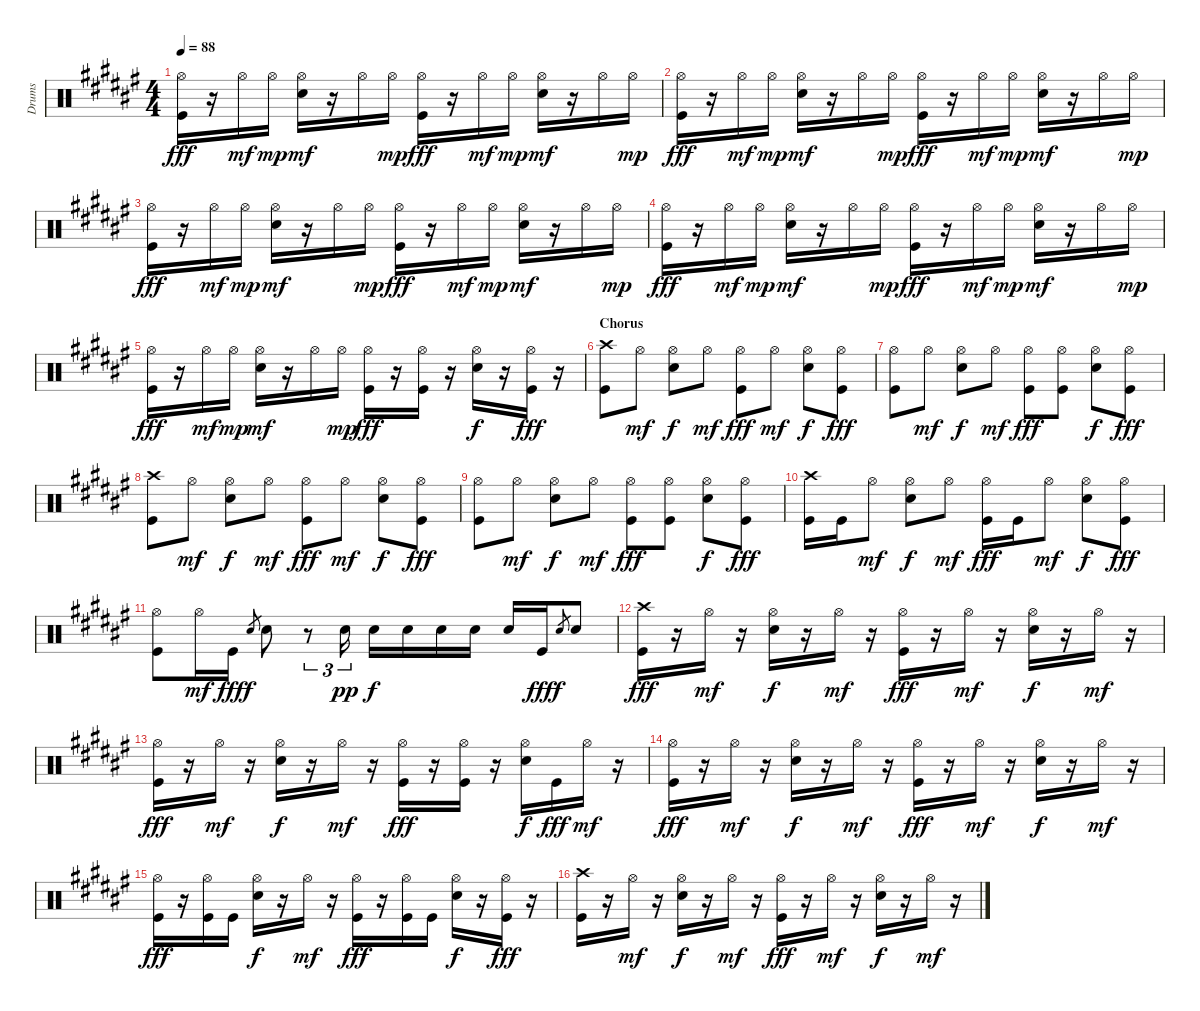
\track ("Drums" "Drums") {instrument percussion}
\staff {score}
\articulation defaults
\ts (4 4)
\tempo 88
\clef neutral
\ks f#
("Hi-Hat (open)" "Kick (hit)").16{dy fff} r.16 "Hi-Hat (open)".16{dy mf} "Hi-Hat (open)".16{dy mp} ("Hi-Hat (open)" "Snare (hit) 2").16{dy mf} r.16 "Hi-Hat (open)".16 "Hi-Hat (open)".16{dy mp} ("Hi-Hat (open)" "Kick (hit)").16{dy fff} r.16 "Hi-Hat (open)".16{dy mf} "Hi-Hat (open)".16{dy mp} ("Hi-Hat (open)" "Snare (hit) 2").16{dy mf} r.16 "Hi-Hat (open)".16 "Hi-Hat (open)".16{dy mp} |
("Hi-Hat (open)" "Kick (hit)").16{dy fff} r.16 "Hi-Hat (open)".16{dy mf} "Hi-Hat (open)".16{dy mp} ("Hi-Hat (open)" "Snare (hit) 2").16{dy mf} r.16 "Hi-Hat (open)".16 "Hi-Hat (open)".16{dy mp} ("Hi-Hat (open)" "Kick (hit)").16{dy fff} r.16 "Hi-Hat (open)".16{dy mf} "Hi-Hat (open)".16{dy mp} ("Hi-Hat (open)" "Snare (hit) 2").16{dy mf} r.16 "Hi-Hat (open)".16 "Hi-Hat (open)".16{dy mp} |
("Hi-Hat (open)" "Kick (hit)").16{dy fff} r.16 "Hi-Hat (open)".16{dy mf} "Hi-Hat (open)".16{dy mp} ("Hi-Hat (open)" "Snare (hit) 2").16{dy mf} r.16 "Hi-Hat (open)".16 "Hi-Hat (open)".16{dy mp} ("Hi-Hat (open)" "Kick (hit)").16{dy fff} r.16 "Hi-Hat (open)".16{dy mf} "Hi-Hat (open)".16{dy mp} ("Hi-Hat (open)" "Snare (hit) 2").16{dy mf} r.16 "Hi-Hat (open)".16 "Hi-Hat (open)".16{dy mp} |
("Hi-Hat (open)" "Kick (hit)").16{dy fff} r.16 "Hi-Hat (open)".16{dy mf} "Hi-Hat (open)".16{dy mp} ("Hi-Hat (open)" "Snare (hit) 2").16{dy mf} r.16 "Hi-Hat (open)".16 "Hi-Hat (open)".16{dy mp} ("Hi-Hat (open)" "Kick (hit)").16{dy fff} r.16 "Hi-Hat (open)".16{dy mf} "Hi-Hat (open)".16{dy mp} ("Hi-Hat (open)" "Snare (hit) 2").16{dy mf} r.16 "Hi-Hat (open)".16 "Hi-Hat (open)".16{dy mp} |
("Hi-Hat (open)" "Kick (hit)").16{dy fff} r.16 "Hi-Hat (open)".16{dy mf} "Hi-Hat (open)".16{dy mp} ("Hi-Hat (open)" "Snare (hit) 2").16{dy mf} r.16 "Hi-Hat (open)".16 "Hi-Hat (open)".16{dy mp} ("Hi-Hat (open)" "Kick (hit)").16{dy fff} r.16 ("Hi-Hat (open)" "Kick (hit)").16 r.16 ("Hi-Hat (open)" "Snare (hit) 2").16{dy f} r.16 ("Hi-Hat (open)" "Kick (hit)").16{dy fff} r.16 |
\section ("" "Chorus")
("Crash high (hit)" "Kick (hit)").8 "Hi-Hat (open)".8{dy mf} ("Hi-Hat (open)" "Snare (hit) 2").8{dy f} "Hi-Hat (open)".8{dy mf} ("Hi-Hat (open)" "Kick (hit)").8{dy fff} "Hi-Hat (open)".8{dy mf} ("Hi-Hat (open)" "Snare (hit) 2").8{dy f} ("Hi-Hat (open)" "Kick (hit)").8{dy fff} |
("Hi-Hat (open)" "Kick (hit)").8 "Hi-Hat (open)".8{dy mf} ("Hi-Hat (open)" "Snare (hit) 2").8{dy f} "Hi-Hat (open)".8{dy mf} ("Hi-Hat (open)" "Kick (hit)").8{dy fff} ("Hi-Hat (open)" "Kick (hit)").8 ("Hi-Hat (open)" "Snare (hit) 2").8{dy f} ("Hi-Hat (open)" "Kick (hit)").8{dy fff} |
("Crash high (hit)" "Kick (hit)").8 "Hi-Hat (open)".8{dy mf} ("Hi-Hat (open)" "Snare (hit) 2").8{dy f} "Hi-Hat (open)".8{dy mf} ("Hi-Hat (open)" "Kick (hit)").8{dy fff} "Hi-Hat (open)".8{dy mf} ("Hi-Hat (open)" "Snare (hit) 2").8{dy f} ("Hi-Hat (open)" "Kick (hit)").8{dy fff} |
("Hi-Hat (open)" "Kick (hit)").8 "Hi-Hat (open)".8{dy mf} ("Hi-Hat (open)" "Snare (hit) 2").8{dy f} "Hi-Hat (open)".8{dy mf} ("Hi-Hat (open)" "Kick (hit)").8{dy fff} ("Hi-Hat (open)" "Kick (hit)").8 ("Hi-Hat (open)" "Snare (hit) 2").8{dy f} ("Hi-Hat (open)" "Kick (hit)").8{dy fff} |
("Crash high (hit)" "Kick (hit)").16 "Kick (hit)".16 "Hi-Hat (open)".8{dy mf} ("Hi-Hat (open)" "Snare (hit) 2").8{dy f} "Hi-Hat (open)".8{dy mf} ("Hi-Hat (open)" "Kick (hit)").16{dy fff} "Kick (hit)".16 "Hi-Hat (open)".8{dy mf} ("Hi-Hat (open)" "Snare (hit) 2").8{dy f} ("Hi-Hat (open)" "Kick (hit)").8{dy fff} |
("Hi-Hat (open)" "Kick (hit)").8 "Hi-Hat (open)".16{dy mf} "Kick (hit)".16{dy fff} "Snare (hit) 2".8{gr dy f} "Snare (hit) 2".8 r.8{tu (3 2)} "Snare (hit) 2".16{tu (3 2) dy pp} "Snare (hit) 2".16{dy f} "Snare (hit) 2".16 "Snare (hit) 2".16 "Snare (hit) 2".16 "Snare (hit) 2".16 "Kick (hit)".16{dy fff} "Snare (hit) 2".8{gr dy f} "Snare (hit) 2".8 |
("Crash high (hit)" "Kick (hit)").16{dy fff} r.16 "Hi-Hat (open)".16{dy mf} r.16 ("Hi-Hat (open)" "Snare (hit) 2").16{dy f} r.16 "Hi-Hat (open)".16{dy mf} r.16 ("Hi-Hat (open)" "Kick (hit)").16{dy fff} r.16 "Hi-Hat (open)".16{dy mf} r.16 ("Hi-Hat (open)" "Snare (hit) 2").16{dy f} r.16 "Hi-Hat (open)".16{dy mf} r.16 |
("Hi-Hat (open)" "Kick (hit)").16{dy fff} r.16 "Hi-Hat (open)".16{dy mf} r.16 ("Hi-Hat (open)" "Snare (hit) 2").16{dy f} r.16 "Hi-Hat (open)".16{dy mf} r.16 ("Hi-Hat (open)" "Kick (hit)").16{dy fff} r.16 ("Hi-Hat (open)" "Kick (hit)").16 r.16 ("Hi-Hat (open)" "Snare (hit) 2").16{dy f} "Kick (hit)".16{dy fff} "Hi-Hat (open)".16{dy mf} r.16 |
("Hi-Hat (open)" "Kick (hit)").16{dy fff} r.16 "Hi-Hat (open)".16{dy mf} r.16 ("Hi-Hat (open)" "Snare (hit) 2").16{dy f} r.16 "Hi-Hat (open)".16{dy mf} r.16 ("Hi-Hat (open)" "Kick (hit)").16{dy fff} r.16 "Hi-Hat (open)".16{dy mf} r.16 ("Hi-Hat (open)" "Snare (hit) 2").16{dy f} r.16 "Hi-Hat (open)".16{dy mf} r.16 |
("Hi-Hat (open)" "Kick (hit)").16{dy fff} r.16 ("Hi-Hat (open)" "Kick (hit)").16 "Kick (hit)".16 ("Hi-Hat (open)" "Snare (hit) 2").16{dy f} r.16 "Hi-Hat (open)".16{dy mf} r.16 ("Hi-Hat (open)" "Kick (hit)").16{dy fff} r.16 ("Hi-Hat (open)" "Kick (hit)").16 "Kick (hit)".16 ("Hi-Hat (open)" "Snare (hit) 2").16{dy f} r.16 ("Hi-Hat (open)" "Kick (hit)").16{dy fff} r.16 |
("Crash high (hit)" "Kick (hit)").16 r.16 "Hi-Hat (open)".16{dy mf} r.16 ("Hi-Hat (open)" "Snare (hit) 2").16{dy f} r.16 "Hi-Hat (open)".16{dy mf} r.16 ("Hi-Hat (open)" "Kick (hit)").16{dy fff} r.16 "Hi-Hat (open)".16{dy mf} r.16 ("Hi-Hat (open)" "Snare (hit) 2").16{dy f} r.16 "Hi-Hat (open)".16{dy mf} r.16
